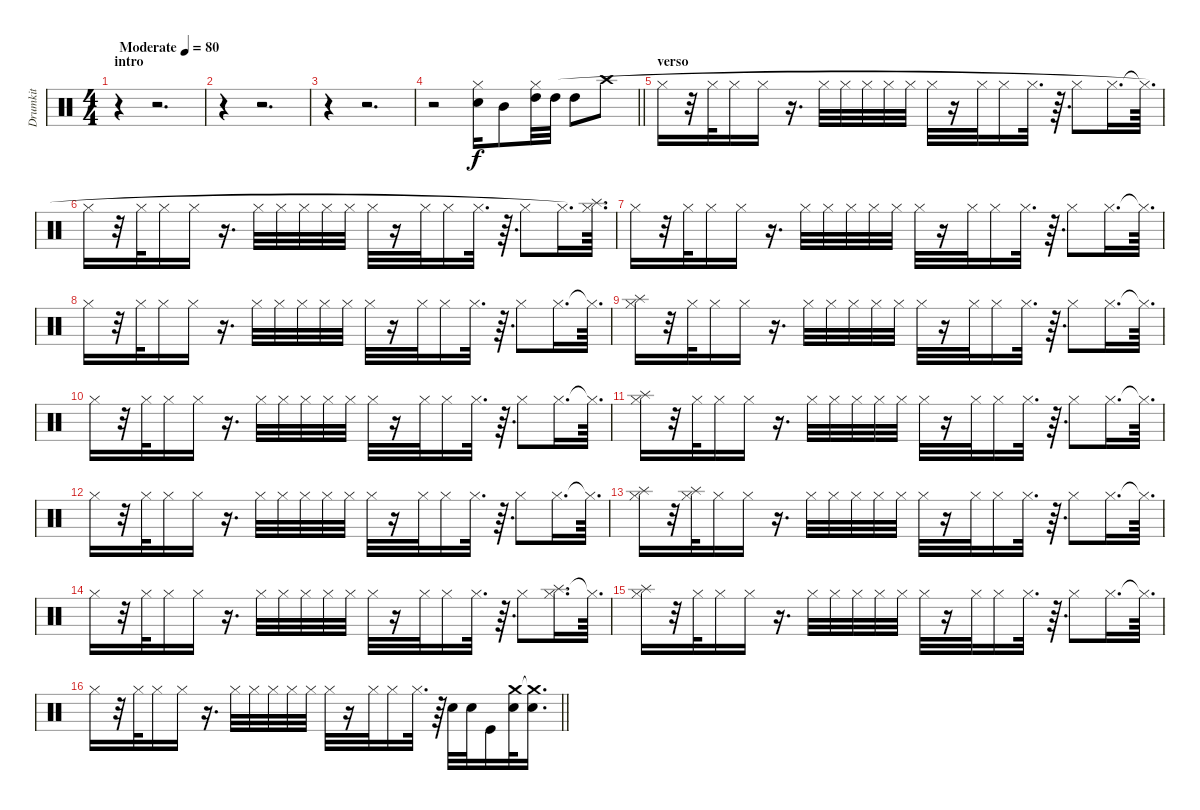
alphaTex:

\track ("Drumkit" "Drumkit") {instrument percussion}
\staff {score}
\articulation defaults
\ts (4 4)
\section ("" "intro")
\tempo (80 "Moderate")
\clef neutral
\ks c
r.4{dy f} r.2{d} |
r.4 r.2{d} |
r.4 r.2{d} |
\barLineRight lightlight
r.2 ("Snare (hit) 2" "Hi-Hat (closed)").16 "Mid Tom (hit)".8 ("High Tom (hit)" "Hi-Hat (closed)").32 "High Tom (hit)".32 "High Tom (hit)".8 "Crash high (hit)".8 |
\section ("" "verso")
"Hi-Hat (closed)".16 r.32 "Hi-Hat (closed)".32 "Hi-Hat (closed)".16 "Hi-Hat (closed)".16 r.16{d} "Hi-Hat (closed)".32 "Hi-Hat (closed)".32 "Hi-Hat (closed)".32 "Hi-Hat (closed)".32 "Hi-Hat (closed)".32 "Hi-Hat (closed)".32 r.16 "Hi-Hat (closed)".32 "Hi-Hat (closed)".16 "Hi-Hat (closed)".32{d} r.64{d} "Hi-Hat (closed)".8 "Hi-Hat (closed)".16{d} "Hi-Hat (closed)"{t}.64{d} |
"Hi-Hat (closed)".16 r.32 "Hi-Hat (closed)".32 "Hi-Hat (closed)".16 "Hi-Hat (closed)".16 r.16{d} "Hi-Hat (closed)".32 "Hi-Hat (closed)".32 "Hi-Hat (closed)".32 "Hi-Hat (closed)".32 "Hi-Hat (closed)".32 "Hi-Hat (closed)".32 r.16 "Hi-Hat (closed)".32 "Hi-Hat (closed)".16 "Hi-Hat (closed)".32{d} r.64{d} "Hi-Hat (closed)".8 "Hi-Hat (closed)".16{d} ("Splash (hit)" "Hi-Hat (closed)"{t}).64{d} |
"Hi-Hat (closed)".16 r.32 "Hi-Hat (closed)".32 "Hi-Hat (closed)".16 "Hi-Hat (closed)".16 r.16{d} "Hi-Hat (closed)".32 "Hi-Hat (closed)".32 "Hi-Hat (closed)".32 "Hi-Hat (closed)".32 "Hi-Hat (closed)".32 "Hi-Hat (closed)".32 r.16 "Hi-Hat (closed)".32 "Hi-Hat (closed)".16 "Hi-Hat (closed)".32{d} r.64{d} "Hi-Hat (closed)".8 "Hi-Hat (closed)".16{d} "Hi-Hat (closed)"{t}.64{d} |
"Hi-Hat (closed)".16 r.32 "Hi-Hat (closed)".32 "Hi-Hat (closed)".16 "Hi-Hat (closed)".16 r.16{d} "Hi-Hat (closed)".32 "Hi-Hat (closed)".32 "Hi-Hat (closed)".32 "Hi-Hat (closed)".32 "Hi-Hat (closed)".32 "Hi-Hat (closed)".32 r.16 "Hi-Hat (closed)".32 "Hi-Hat (closed)".16 "Hi-Hat (closed)".32{d} r.64{d} "Hi-Hat (closed)".8 "Hi-Hat (closed)".16{d} "Hi-Hat (closed)"{t}.64{d} |
("Splash (hit)" "Hi-Hat (closed)").16 r.32 "Hi-Hat (closed)".32 "Hi-Hat (closed)".16 "Hi-Hat (closed)".16 r.16{d} "Hi-Hat (closed)".32 "Hi-Hat (closed)".32 "Hi-Hat (closed)".32 "Hi-Hat (closed)".32 "Hi-Hat (closed)".32 "Hi-Hat (closed)".32 r.16 "Hi-Hat (closed)".32 "Hi-Hat (closed)".16 "Hi-Hat (closed)".32{d} r.64{d} "Hi-Hat (closed)".8 "Hi-Hat (closed)".16{d} "Hi-Hat (closed)"{t}.64{d} |
"Hi-Hat (closed)".16 r.32 "Hi-Hat (closed)".32 "Hi-Hat (closed)".16 "Hi-Hat (closed)".16 r.16{d} "Hi-Hat (closed)".32 "Hi-Hat (closed)".32 "Hi-Hat (closed)".32 "Hi-Hat (closed)".32 "Hi-Hat (closed)".32 "Hi-Hat (closed)".32 r.16 "Hi-Hat (closed)".32 "Hi-Hat (closed)".16 "Hi-Hat (closed)".32{d} r.64{d} "Hi-Hat (closed)".8 "Hi-Hat (closed)".16{d} "Hi-Hat (closed)"{t}.64{d} |
("Splash (hit)" "Hi-Hat (closed)").16 r.32 "Hi-Hat (closed)".32 "Hi-Hat (closed)".16 "Hi-Hat (closed)".16 r.16{d} "Hi-Hat (closed)".32 "Hi-Hat (closed)".32 "Hi-Hat (closed)".32 "Hi-Hat (closed)".32 "Hi-Hat (closed)".32 "Hi-Hat (closed)".32 r.16 "Hi-Hat (closed)".32 "Hi-Hat (closed)".16 "Hi-Hat (closed)".32{d} r.64{d} "Hi-Hat (closed)".8 "Hi-Hat (closed)".16{d} "Hi-Hat (closed)"{t}.64{d} |
"Hi-Hat (closed)".16 r.32 "Hi-Hat (closed)".32 "Hi-Hat (closed)".16 "Hi-Hat (closed)".16 r.16{d} "Hi-Hat (closed)".32 "Hi-Hat (closed)".32 "Hi-Hat (closed)".32 "Hi-Hat (closed)".32 "Hi-Hat (closed)".32 "Hi-Hat (closed)".32 r.16 "Hi-Hat (closed)".32 "Hi-Hat (closed)".16 "Hi-Hat (closed)".32{d} r.64{d} "Hi-Hat (closed)".8 "Hi-Hat (closed)".16{d} "Hi-Hat (closed)"{t}.64{d} |
("Splash (hit)" "Hi-Hat (closed)").16 r.32 ("Splash (hit)" "Hi-Hat (closed)").32 "Hi-Hat (closed)".16 "Hi-Hat (closed)".16 r.16{d} "Hi-Hat (closed)".32 "Hi-Hat (closed)".32 "Hi-Hat (closed)".32 "Hi-Hat (closed)".32 "Hi-Hat (closed)".32 "Hi-Hat (closed)".32 r.16 "Hi-Hat (closed)".32 "Hi-Hat (closed)".16 "Hi-Hat (closed)".32{d} r.64{d} "Hi-Hat (closed)".8 "Hi-Hat (closed)".16{d} "Hi-Hat (closed)"{t}.64{d} |
"Hi-Hat (closed)".16 r.32 "Hi-Hat (closed)".32 "Hi-Hat (closed)".16 "Hi-Hat (closed)".16 r.16{d} "Hi-Hat (closed)".32 "Hi-Hat (closed)".32 "Hi-Hat (closed)".32 "Hi-Hat (closed)".32 "Hi-Hat (closed)".32 "Hi-Hat (closed)".32 r.16 "Hi-Hat (closed)".32 "Hi-Hat (closed)".16 "Hi-Hat (closed)".32{d} r.64{d} "Hi-Hat (closed)".8 ("Splash (hit)" "Hi-Hat (closed)").16{d} "Hi-Hat (closed)"{t}.64{d} |
("Splash (hit)" "Hi-Hat (closed)").16 r.32 "Hi-Hat (closed)".32 "Hi-Hat (closed)".16 "Hi-Hat (closed)".16 r.16{d} "Hi-Hat (closed)".32 "Hi-Hat (closed)".32 "Hi-Hat (closed)".32 "Hi-Hat (closed)".32 "Hi-Hat (closed)".32 "Hi-Hat (closed)".32 r.16 "Hi-Hat (closed)".32 "Hi-Hat (closed)".16 "Hi-Hat (closed)".32{d} r.64{d} "Hi-Hat (closed)".8 "Hi-Hat (closed)".16{d} "Hi-Hat (closed)"{t}.64{d} |
\barLineRight lightlight "Hi-Hat (closed)".16
r.32 "Hi-Hat (closed)".32 "Hi-Hat (closed)".16 "Hi-Hat (closed)".16 r.16{d} "Hi-Hat (closed)".32 "Hi-Hat (closed)".32 "Hi-Hat (closed)".32 "Hi-Hat (closed)".32 "Hi-Hat (closed)".32 "Hi-Hat (closed)".32 r.16 "Hi-Hat (closed)".32 "Hi-Hat (closed)".16 "Hi-Hat (closed)".32{d} r.64 "Snare (hit) 2".32 "Snare (hit) 2".32 "Kick (hit)".16 ("Crash medium (hit)" "Snare (hit) 2").32 ("Crash medium (hit)"{t} "Snare (hit) 2").16{d}
